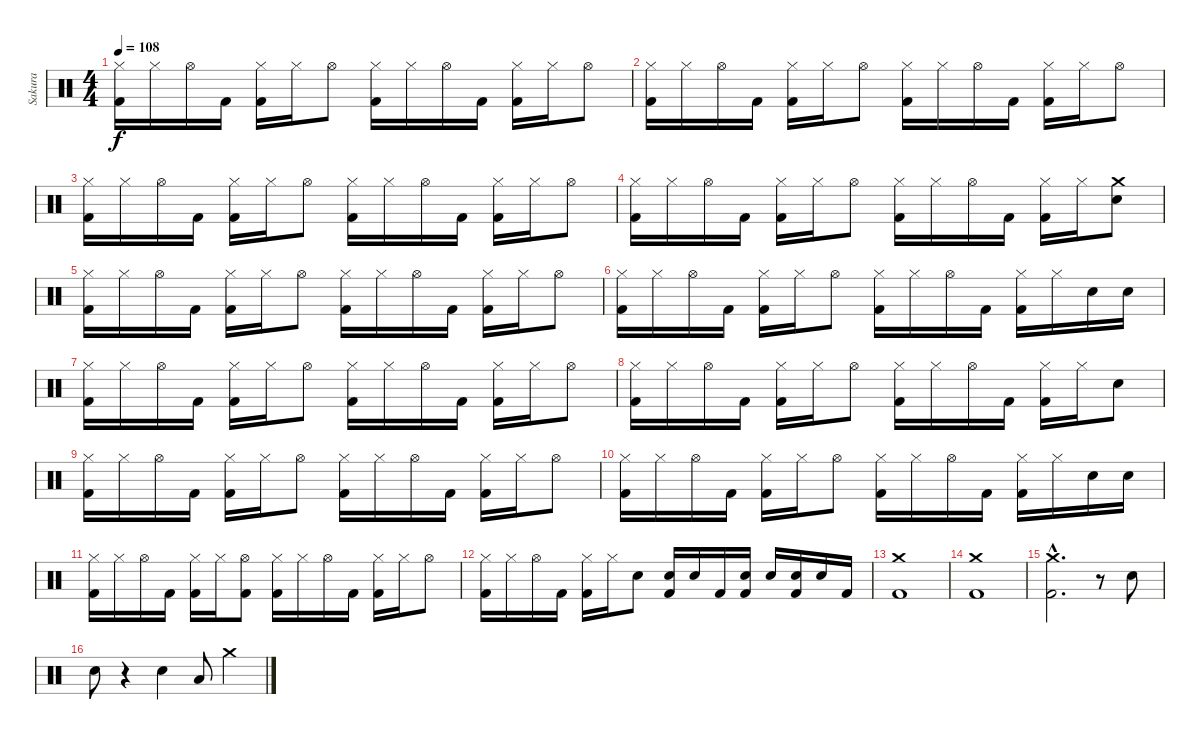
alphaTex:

\track ("Sakura" "Sakura") {instrument percussion}
\staff {score}
\articulation defaults
\ts (4 4)
\tempo 108
\clef neutral
\ks c
("Hi-Hat (closed)" "Kick (hit) 2").16{dy f} "Hi-Hat (closed)".16 "Hi-Hat (open)".16 "Kick (hit) 2".16 ("Hi-Hat (closed)" "Kick (hit) 2").16 "Hi-Hat (closed)".16 "Hi-Hat (open)".8 ("Hi-Hat (closed)" "Kick (hit) 2").16 "Hi-Hat (closed)".16 "Hi-Hat (open)".16 "Kick (hit) 2".16 ("Hi-Hat (closed)" "Kick (hit) 2").16 "Hi-Hat (closed)".16 "Hi-Hat (open)".8 |
("Hi-Hat (closed)" "Kick (hit) 2").16 "Hi-Hat (closed)".16 "Hi-Hat (open)".16 "Kick (hit) 2".16 ("Hi-Hat (closed)" "Kick (hit) 2").16 "Hi-Hat (closed)".16 "Hi-Hat (open)".8 ("Hi-Hat (closed)" "Kick (hit) 2").16 "Hi-Hat (closed)".16 "Hi-Hat (open)".16 "Kick (hit) 2".16 ("Hi-Hat (closed)" "Kick (hit) 2").16 "Hi-Hat (closed)".16 "Hi-Hat (open)".8 |
("Hi-Hat (closed)" "Kick (hit) 2").16 "Hi-Hat (closed)".16 "Hi-Hat (open)".16 "Kick (hit) 2".16 ("Hi-Hat (closed)" "Kick (hit) 2").16 "Hi-Hat (closed)".16 "Hi-Hat (open)".8 ("Hi-Hat (closed)" "Kick (hit) 2").16 "Hi-Hat (closed)".16 "Hi-Hat (open)".16 "Kick (hit) 2".16 ("Hi-Hat (closed)" "Kick (hit) 2").16 "Hi-Hat (closed)".16 "Hi-Hat (open)".8 |
("Hi-Hat (closed)" "Kick (hit) 2").16 "Hi-Hat (closed)".16 "Hi-Hat (open)".16 "Kick (hit) 2".16 ("Hi-Hat (closed)" "Kick (hit) 2").16 "Hi-Hat (closed)".16 "Hi-Hat (open)".8 ("Hi-Hat (closed)" "Kick (hit) 2").16 "Hi-Hat (closed)".16 "Hi-Hat (open)".16 "Kick (hit) 2".16 ("Hi-Hat (closed)" "Kick (hit) 2").16 "Hi-Hat (closed)".16 ("Crash medium (hit)" "Snare (hit) 2").8 |
("Hi-Hat (closed)" "Kick (hit) 2").16 "Hi-Hat (closed)".16 "Hi-Hat (open)".16 "Kick (hit) 2".16 ("Hi-Hat (closed)" "Kick (hit) 2").16 "Hi-Hat (closed)".16 "Hi-Hat (open)".8 ("Hi-Hat (closed)" "Kick (hit) 2").16 "Hi-Hat (closed)".16 "Hi-Hat (open)".16 "Kick (hit) 2".16 ("Hi-Hat (closed)" "Kick (hit) 2").16 "Hi-Hat (closed)".16 "Hi-Hat (open)".8 |
("Hi-Hat (closed)" "Kick (hit) 2").16 "Hi-Hat (closed)".16 "Hi-Hat (open)".16 "Kick (hit) 2".16 ("Hi-Hat (closed)" "Kick (hit) 2").16 "Hi-Hat (closed)".16 "Hi-Hat (open)".8 ("Hi-Hat (closed)" "Kick (hit) 2").16 "Hi-Hat (closed)".16 "Hi-Hat (open)".16 "Kick (hit) 2".16 ("Hi-Hat (closed)" "Kick (hit) 2").16 "Hi-Hat (closed)".16 "Snare (hit) 2".16 "Snare (hit) 2".16 |
("Hi-Hat (closed)" "Kick (hit) 2").16 "Hi-Hat (closed)".16 "Hi-Hat (open)".16 "Kick (hit) 2".16 ("Hi-Hat (closed)" "Kick (hit) 2").16 "Hi-Hat (closed)".16 "Hi-Hat (open)".8 ("Hi-Hat (closed)" "Kick (hit) 2").16 "Hi-Hat (closed)".16 "Hi-Hat (open)".16 "Kick (hit) 2".16 ("Hi-Hat (closed)" "Kick (hit) 2").16 "Hi-Hat (closed)".16 "Hi-Hat (open)".8 |
("Hi-Hat (closed)" "Kick (hit) 2").16 "Hi-Hat (closed)".16 "Hi-Hat (open)".16 "Kick (hit) 2".16 ("Hi-Hat (closed)" "Kick (hit) 2").16 "Hi-Hat (closed)".16 "Hi-Hat (open)".8 ("Hi-Hat (closed)" "Kick (hit) 2").16 "Hi-Hat (closed)".16 "Hi-Hat (open)".16 "Kick (hit) 2".16 ("Hi-Hat (closed)" "Kick (hit) 2").16 "Hi-Hat (closed)".16 "Snare (hit) 2".8 |
("Hi-Hat (closed)" "Kick (hit) 2").16 "Hi-Hat (closed)".16 "Hi-Hat (open)".16 "Kick (hit) 2".16 ("Hi-Hat (closed)" "Kick (hit) 2").16 "Hi-Hat (closed)".16 "Hi-Hat (open)".8 ("Hi-Hat (closed)" "Kick (hit) 2").16 "Hi-Hat (closed)".16 "Hi-Hat (open)".16 "Kick (hit) 2".16 ("Hi-Hat (closed)" "Kick (hit) 2").16 "Hi-Hat (closed)".16 "Hi-Hat (open)".8 |
("Hi-Hat (closed)" "Kick (hit) 2").16 "Hi-Hat (closed)".16 "Hi-Hat (open)".16 "Kick (hit) 2".16 ("Hi-Hat (closed)" "Kick (hit) 2").16 "Hi-Hat (closed)".16 "Hi-Hat (open)".8 ("Hi-Hat (closed)" "Kick (hit) 2").16 "Hi-Hat (closed)".16 "Hi-Hat (open)".16 "Kick (hit) 2".16 ("Hi-Hat (closed)" "Kick (hit) 2").16 "Hi-Hat (closed)".16 "Snare (hit) 2".16 "Snare (hit) 2".16 |
("Hi-Hat (closed)" "Kick (hit) 2").16 "Hi-Hat (closed)".16 "Hi-Hat (open)".16 "Kick (hit) 2".16 ("Hi-Hat (closed)" "Kick (hit) 2").16 "Hi-Hat (closed)".16 ("Hi-Hat (open)" "Kick (hit) 2").8 ("Hi-Hat (closed)" "Kick (hit) 2").16 "Hi-Hat (closed)".16 "Hi-Hat (open)".16 "Kick (hit) 2".16 ("Hi-Hat (closed)" "Kick (hit) 2").16 "Hi-Hat (closed)".16 "Hi-Hat (open)".8 |
("Hi-Hat (closed)" "Kick (hit) 2").16 "Hi-Hat (closed)".16 "Hi-Hat (open)".16 "Kick (hit) 2".16 ("Hi-Hat (closed)" "Kick (hit) 2").16 "Hi-Hat (closed)".16 "Snare (hit) 2".8 ("Snare (hit) 2" "Kick (hit) 2").16 "Snare (hit) 2".16 "Kick (hit) 2".16 ("Snare (hit) 2" "Kick (hit) 2").16 "Snare (hit) 2".16 ("Snare (hit) 2" "Kick (hit) 2").16 "Snare (hit) 2".16 "Kick (hit) 2".16 |
("Crash medium (hit)" "Kick (hit) 2").1 |
("Crash medium (hit)" "Kick (hit) 2").1 |
("Crash medium (hit)" "Kick (hit) 2"{hac}).2{d} r.8 "Snare (hit) 2".8 |
"Snare (hit) 2".8 r.4 "Snare (hit) 2".4 "Low Tom (hit)".8 "Crash medium (hit)".4
